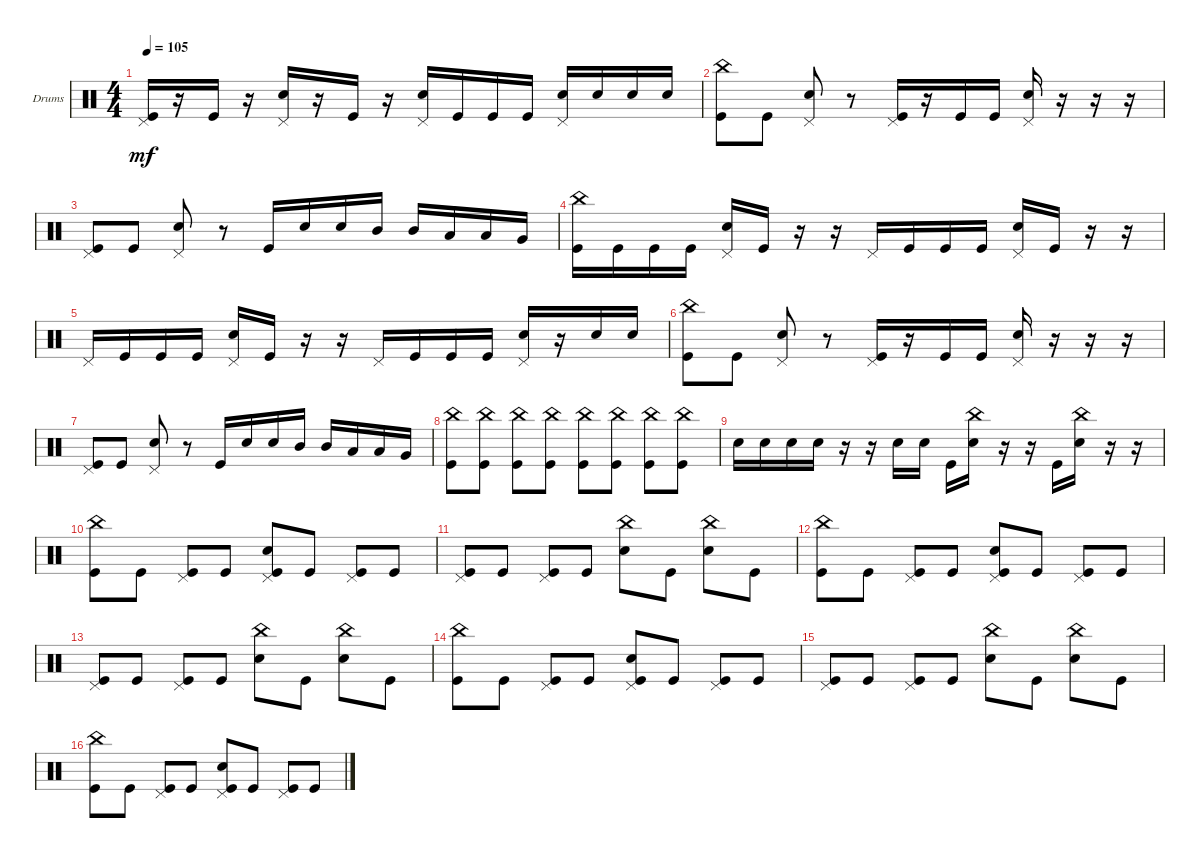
\defaultSystemsLayout 4
\bracketExtendMode groupsimilarinstruments
\firstSystemTrackNameOrientation horizontal
\otherSystemsTrackNameOrientation horizontal
\track ("Drumkit" "Drums") {instrument percussion}
\staff {score}
\articulation defaults
\ts (4 4)
\tempo 105
\clef neutral
\ks c
("Kick (hit)" "Pedal Hi-Hat (hit)").16{dy mf} r.16 "Kick (hit)".16 r.16 ("Snare (hit) 2" "Pedal Hi-Hat (hit)").16 r.16 "Kick (hit)".16 r.16 ("Pedal Hi-Hat (hit)" "Snare (hit) 2").16 "Kick (hit)".16 "Kick (hit)".16 "Kick (hit)".16 ("Snare (hit) 2" "Pedal Hi-Hat (hit)").16 "Snare (hit) 2".16 "Snare (hit) 2".16 "Snare (hit) 2".16 |
("Kick (hit)" "China (hit)").8 "Kick (hit)".8 ("Snare (hit) 2" "Pedal Hi-Hat (hit)").8 r.8 ("Kick (hit)" "Pedal Hi-Hat (hit)").16 r.16 "Kick (hit)".16 "Kick (hit)".16 ("Snare (hit) 2" "Pedal Hi-Hat (hit)").16 r.16 r.16 r.16 |
("Kick (hit)" "Pedal Hi-Hat (hit)").8 "Kick (hit)".8 ("Snare (hit) 2" "Pedal Hi-Hat (hit)").8 r.8 "Kick (hit)".16 "Snare (hit) 2".16 "Snare (hit) 2".16 "Mid Tom (hit)".16 "Mid Tom (hit)".16 "Low Tom (hit)".16 "Low Tom (hit)".16 "Very Low Tom (hit)".16 |
("Kick (hit)" "China (hit)").16 "Kick (hit)".16 "Kick (hit)".16 "Kick (hit)".16 ("Snare (hit) 2" "Pedal Hi-Hat (hit)").16 "Kick (hit)".16 r.16 r.16 "Pedal Hi-Hat (hit)".16 "Kick (hit)".16 "Kick (hit)".16 "Kick (hit)".16 ("Snare (hit) 2" "Pedal Hi-Hat (hit)").16 "Kick (hit)".16 r.16 r.16 |
"Pedal Hi-Hat (hit)".16 "Kick (hit)".16 "Kick (hit)".16 "Kick (hit)".16 ("Snare (hit) 2" "Pedal Hi-Hat (hit)").16 "Kick (hit)".16 r.16 r.16 "Pedal Hi-Hat (hit)".16 "Kick (hit)".16 "Kick (hit)".16 "Kick (hit)".16 ("Snare (hit) 2" "Pedal Hi-Hat (hit)").16 r.16 "Snare (hit) 2".16 "Snare (hit) 2".16 |
("Kick (hit)" "China (hit)").8 "Kick (hit)".8 ("Snare (hit) 2" "Pedal Hi-Hat (hit)").8 r.8 ("Kick (hit)" "Pedal Hi-Hat (hit)").16 r.16 "Kick (hit)".16 "Kick (hit)".16 ("Snare (hit) 2" "Pedal Hi-Hat (hit)").16 r.16 r.16 r.16 |
("Kick (hit)" "Pedal Hi-Hat (hit)").8 "Kick (hit)".8 ("Snare (hit) 2" "Pedal Hi-Hat (hit)").8 r.8 "Kick (hit)".16 "Snare (hit) 2".16 "Snare (hit) 2".16 "Mid Tom (hit)".16 "Mid Tom (hit)".16 "Low Tom (hit)".16 "Low Tom (hit)".16 "Very Low Tom (hit)".16 |
("Kick (hit)" "China (hit)").8 ("China (hit)" "Kick (hit)").8 ("China (hit)" "Kick (hit)").8 ("China (hit)" "Kick (hit)").8 ("China (hit)" "Kick (hit)").8 ("China (hit)" "Kick (hit)").8 ("China (hit)" "Kick (hit)").8 ("China (hit)" "Kick (hit)").8 |
"Snare (hit) 2".16 "Snare (hit) 2".16 "Snare (hit) 2".16 "Snare (hit) 2".16 r.16 r.16 "Snare (hit) 2".16 "Snare (hit) 2".16 "Kick (hit)".16 ("Snare (hit) 2" "China (hit)").16 r.16 r.16 "Kick (hit)".16 ("China (hit)" "Snare (hit) 2").16 r.16 r.16 |
("Kick (hit)" "China (hit)").8 "Kick (hit)".8 ("Kick (hit)" "Pedal Hi-Hat (hit)").8 "Kick (hit)".8 ("Kick (hit)" "Snare (hit) 2" "Pedal Hi-Hat (hit)").8 "Kick (hit)".8 ("Kick (hit)" "Pedal Hi-Hat (hit)").8 "Kick (hit)".8 |
("Kick (hit)" "Pedal Hi-Hat (hit)").8 "Kick (hit)".8 ("Kick (hit)" "Pedal Hi-Hat (hit)").8 "Kick (hit)".8 ("Snare (hit) 2" "China (hit)").8 "Kick (hit)".8 ("China (hit)" "Snare (hit) 2").8 "Kick (hit)".8 |
("Kick (hit)" "China (hit)").8 "Kick (hit)".8 ("Kick (hit)" "Pedal Hi-Hat (hit)").8 "Kick (hit)".8 ("Kick (hit)" "Snare (hit) 2" "Pedal Hi-Hat (hit)").8 "Kick (hit)".8 ("Kick (hit)" "Pedal Hi-Hat (hit)").8 "Kick (hit)".8 |
("Kick (hit)" "Pedal Hi-Hat (hit)").8 "Kick (hit)".8 ("Kick (hit)" "Pedal Hi-Hat (hit)").8 "Kick (hit)".8 ("Snare (hit) 2" "China (hit)").8 "Kick (hit)".8 ("China (hit)" "Snare (hit) 2").8 "Kick (hit)".8 |
("Kick (hit)" "China (hit)").8 "Kick (hit)".8 ("Kick (hit)" "Pedal Hi-Hat (hit)").8 "Kick (hit)".8 ("Kick (hit)" "Snare (hit) 2" "Pedal Hi-Hat (hit)").8 "Kick (hit)".8 ("Kick (hit)" "Pedal Hi-Hat (hit)").8 "Kick (hit)".8 |
("Kick (hit)" "Pedal Hi-Hat (hit)").8 "Kick (hit)".8 ("Kick (hit)" "Pedal Hi-Hat (hit)").8 "Kick (hit)".8 ("Snare (hit) 2" "China (hit)").8 "Kick (hit)".8 ("China (hit)" "Snare (hit) 2").8 "Kick (hit)".8 |
("Kick (hit)" "China (hit)").8 "Kick (hit)".8 ("Kick (hit)" "Pedal Hi-Hat (hit)").8 "Kick (hit)".8 ("Kick (hit)" "Snare (hit) 2" "Pedal Hi-Hat (hit)").8 "Kick (hit)".8 ("Kick (hit)" "Pedal Hi-Hat (hit)").8 "Kick (hit)".8
